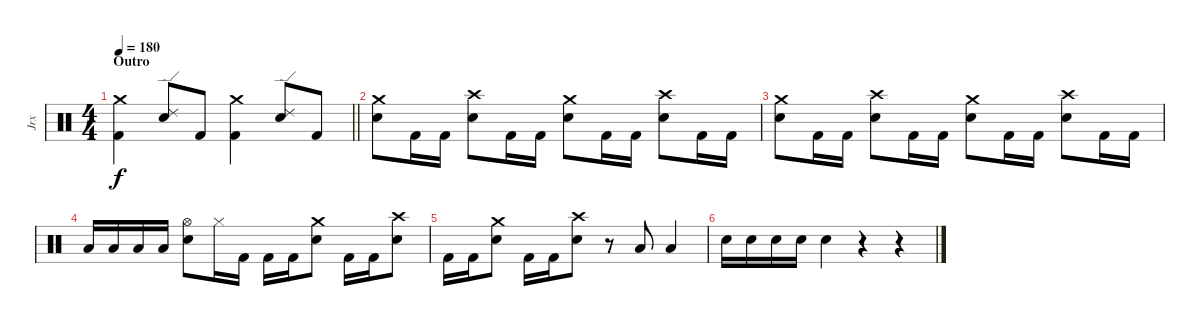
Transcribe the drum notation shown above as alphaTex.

\track ("Jrx" "Jrx") {instrument percussion}
\staff {score}
\articulation defaults
\ts (4 4)
\section ("" "Outro")
\tempo 180
\clef neutral
\barLineRight lightlight
\ks c
("Kick (hit) 2" "Crash medium (hit)").4{dy f} ("Electric Snare (hit)" "Ride (edge) 2").8 "Kick (hit) 2".8 ("Kick (hit) 2" "Crash medium (hit)").4 ("Electric Snare (hit)" "Ride (edge) 2").8 "Kick (hit) 2".8 |
("Electric Snare (hit)" "Crash medium (hit)").8 "Kick (hit) 2".16 "Kick (hit) 2".16 ("Electric Snare (hit)" "Crash high (hit)").8 "Kick (hit) 2".16 "Kick (hit) 2".16 ("Electric Snare (hit)" "Crash medium (hit)").8 "Kick (hit) 2".16 "Kick (hit) 2".16 ("Electric Snare (hit)" "Crash high (hit)").8 "Kick (hit) 2".16 "Kick (hit) 2".16 |
("Electric Snare (hit)" "Crash medium (hit)").8 "Kick (hit) 2".16 "Kick (hit) 2".16 ("Electric Snare (hit)" "Crash high (hit)").8 "Kick (hit) 2".16 "Kick (hit) 2".16 ("Electric Snare (hit)" "Crash medium (hit)").8 "Kick (hit) 2".16 "Kick (hit) 2".16 ("Electric Snare (hit)" "Crash high (hit)").8 "Kick (hit) 2".16 "Kick (hit) 2".16 |
"Low Tom (hit)".16 "Low Tom (hit)".16 "Low Tom (hit)".16 "Low Tom (hit)".16 ("Electric Snare (hit)" "Hi-Hat (open)").8 "Hi-Hat (closed)".16 "Kick (hit) 2".16 "Kick (hit) 2".16 "Kick (hit) 2".16 ("Electric Snare (hit)" "Crash medium (hit)").8 "Kick (hit) 2".16 "Kick (hit) 2".16 ("Electric Snare (hit)" "Crash high (hit)").8 |
"Kick (hit) 2".16 "Kick (hit) 2".16 ("Electric Snare (hit)" "Crash medium (hit)").8 "Kick (hit) 2".16 "Kick (hit) 2".16 ("Electric Snare (hit)" "Crash high (hit)").8 r.8 "Low Tom (hit)".8 "Low Tom (hit)".4 |
"Electric Snare (hit)".16 "Electric Snare (hit)".16 "Electric Snare (hit)".16 "Electric Snare (hit)".16 "Electric Snare (hit)".4 r.4 r.4
